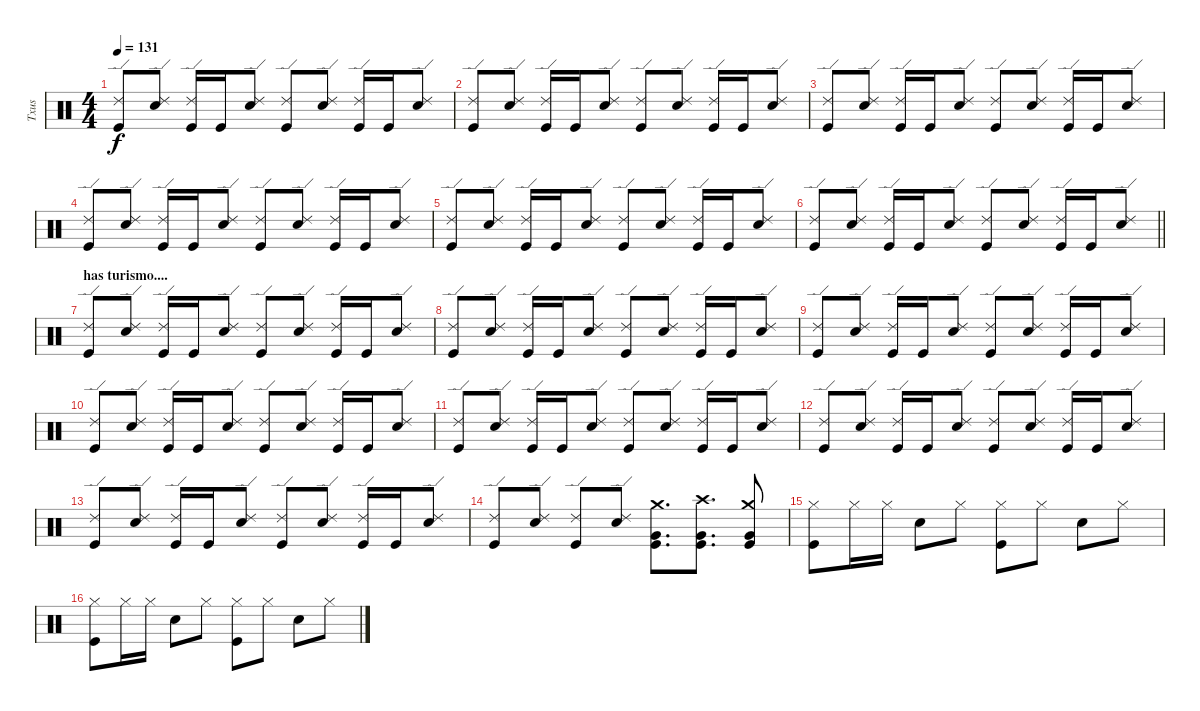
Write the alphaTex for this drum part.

\track ("Txus" "Txus") {instrument percussion}
\staff {score}
\articulation defaults
\ts (4 4)
\tempo 131
\clef neutral
\ks c
("Ride (edge) 2" "Kick (hit)").8{dy f} ("Ride (edge) 2" "Electric Snare (hit)").8 ("Ride (edge) 2" "Kick (hit)").16 "Kick (hit)".16 ("Ride (edge) 2" "Electric Snare (hit)").8 ("Ride (edge) 2" "Kick (hit)").8 ("Ride (edge) 2" "Electric Snare (hit)").8 ("Ride (edge) 2" "Kick (hit)").16 "Kick (hit)".16 ("Ride (edge) 2" "Electric Snare (hit)").8 |
("Ride (edge) 2" "Kick (hit)").8 ("Ride (edge) 2" "Electric Snare (hit)").8 ("Ride (edge) 2" "Kick (hit)").16 "Kick (hit)".16 ("Ride (edge) 2" "Electric Snare (hit)").8 ("Ride (edge) 2" "Kick (hit)").8 ("Ride (edge) 2" "Electric Snare (hit)").8 ("Ride (edge) 2" "Kick (hit)").16 "Kick (hit)".16 ("Ride (edge) 2" "Electric Snare (hit)").8 |
("Ride (edge) 2" "Kick (hit)").8 ("Ride (edge) 2" "Electric Snare (hit)").8 ("Ride (edge) 2" "Kick (hit)").16 "Kick (hit)".16 ("Ride (edge) 2" "Electric Snare (hit)").8 ("Ride (edge) 2" "Kick (hit)").8 ("Ride (edge) 2" "Electric Snare (hit)").8 ("Ride (edge) 2" "Kick (hit)").16 "Kick (hit)".16 ("Ride (edge) 2" "Electric Snare (hit)").8 |
("Ride (edge) 2" "Kick (hit)").8 ("Ride (edge) 2" "Electric Snare (hit)").8 ("Ride (edge) 2" "Kick (hit)").16 "Kick (hit)".16 ("Ride (edge) 2" "Electric Snare (hit)").8 ("Ride (edge) 2" "Kick (hit)").8 ("Ride (edge) 2" "Electric Snare (hit)").8 ("Ride (edge) 2" "Kick (hit)").16 "Kick (hit)".16 ("Ride (edge) 2" "Electric Snare (hit)").8 |
("Ride (edge) 2" "Kick (hit)").8 ("Ride (edge) 2" "Electric Snare (hit)").8 ("Ride (edge) 2" "Kick (hit)").16 "Kick (hit)".16 ("Ride (edge) 2" "Electric Snare (hit)").8 ("Ride (edge) 2" "Kick (hit)").8 ("Ride (edge) 2" "Electric Snare (hit)").8 ("Ride (edge) 2" "Kick (hit)").16 "Kick (hit)".16 ("Ride (edge) 2" "Electric Snare (hit)").8 |
\barLineRight lightlight
("Ride (edge) 2" "Kick (hit)").8 ("Ride (edge) 2" "Electric Snare (hit)").8 ("Ride (edge) 2" "Kick (hit)").16 "Kick (hit)".16 ("Ride (edge) 2" "Electric Snare (hit)").8 ("Ride (edge) 2" "Kick (hit)").8 ("Ride (edge) 2" "Electric Snare (hit)").8 ("Ride (edge) 2" "Kick (hit)").16 "Kick (hit)".16 ("Ride (edge) 2" "Electric Snare (hit)").8 |
\section ("" "has turismo....")
("Ride (edge) 2" "Kick (hit)").8 ("Ride (edge) 2" "Electric Snare (hit)").8 ("Ride (edge) 2" "Kick (hit)").16 "Kick (hit)".16 ("Ride (edge) 2" "Electric Snare (hit)").8 ("Ride (edge) 2" "Kick (hit)").8 ("Ride (edge) 2" "Electric Snare (hit)").8 ("Ride (edge) 2" "Kick (hit)").16 "Kick (hit)".16 ("Ride (edge) 2" "Electric Snare (hit)").8 |
("Ride (edge) 2" "Kick (hit)").8 ("Ride (edge) 2" "Electric Snare (hit)").8 ("Ride (edge) 2" "Kick (hit)").16 "Kick (hit)".16 ("Ride (edge) 2" "Electric Snare (hit)").8 ("Ride (edge) 2" "Kick (hit)").8 ("Ride (edge) 2" "Electric Snare (hit)").8 ("Ride (edge) 2" "Kick (hit)").16 "Kick (hit)".16 ("Ride (edge) 2" "Electric Snare (hit)").8 |
("Ride (edge) 2" "Kick (hit)").8 ("Ride (edge) 2" "Electric Snare (hit)").8 ("Ride (edge) 2" "Kick (hit)").16 "Kick (hit)".16 ("Ride (edge) 2" "Electric Snare (hit)").8 ("Ride (edge) 2" "Kick (hit)").8 ("Ride (edge) 2" "Electric Snare (hit)").8 ("Ride (edge) 2" "Kick (hit)").16 "Kick (hit)".16 ("Ride (edge) 2" "Electric Snare (hit)").8 |
("Ride (edge) 2" "Kick (hit)").8 ("Ride (edge) 2" "Electric Snare (hit)").8 ("Ride (edge) 2" "Kick (hit)").16 "Kick (hit)".16 ("Ride (edge) 2" "Electric Snare (hit)").8 ("Ride (edge) 2" "Kick (hit)").8 ("Ride (edge) 2" "Electric Snare (hit)").8 ("Ride (edge) 2" "Kick (hit)").16 "Kick (hit)".16 ("Ride (edge) 2" "Electric Snare (hit)").8 |
("Ride (edge) 2" "Kick (hit)").8 ("Ride (edge) 2" "Electric Snare (hit)").8 ("Ride (edge) 2" "Kick (hit)").16 "Kick (hit)".16 ("Ride (edge) 2" "Electric Snare (hit)").8 ("Ride (edge) 2" "Kick (hit)").8 ("Ride (edge) 2" "Electric Snare (hit)").8 ("Ride (edge) 2" "Kick (hit)").16 "Kick (hit)".16 ("Ride (edge) 2" "Electric Snare (hit)").8 |
("Ride (edge) 2" "Kick (hit)").8 ("Ride (edge) 2" "Electric Snare (hit)").8 ("Ride (edge) 2" "Kick (hit)").16 "Kick (hit)".16 ("Ride (edge) 2" "Electric Snare (hit)").8 ("Ride (edge) 2" "Kick (hit)").8 ("Ride (edge) 2" "Electric Snare (hit)").8 ("Ride (edge) 2" "Kick (hit)").16 "Kick (hit)".16 ("Ride (edge) 2" "Electric Snare (hit)").8 |
("Ride (edge) 2" "Kick (hit)").8 ("Ride (edge) 2" "Electric Snare (hit)").8 ("Ride (edge) 2" "Kick (hit)").16 "Kick (hit)".16 ("Ride (edge) 2" "Electric Snare (hit)").8 ("Ride (edge) 2" "Kick (hit)").8 ("Ride (edge) 2" "Electric Snare (hit)").8 ("Ride (edge) 2" "Kick (hit)").16 "Kick (hit)".16 ("Ride (edge) 2" "Electric Snare (hit)").8 |
("Ride (edge) 2" "Kick (hit)").8 ("Ride (edge) 2" "Electric Snare (hit)").8 ("Ride (edge) 2" "Kick (hit)").8 ("Ride (edge) 2" "Electric Snare (hit)").8 ("Crash medium (hit)" "Very Low Tom (hit)" "Kick (hit)").8{d} ("Crash high (hit)" "Very Low Tom (hit)" "Kick (hit)").8{d} ("Crash medium (hit)" "Very Low Tom (hit)" "Kick (hit)").8 |
("Hi-Hat (closed)" "Kick (hit)").8 "Hi-Hat (closed)".16 "Hi-Hat (closed)".16 "Electric Snare (hit)".8 "Hi-Hat (closed)".8 ("Hi-Hat (closed)" "Kick (hit)").8 "Hi-Hat (closed)".8 "Electric Snare (hit)".8 "Hi-Hat (closed)".8 |
("Hi-Hat (closed)" "Kick (hit)").8 "Hi-Hat (closed)".16 "Hi-Hat (closed)".16 "Electric Snare (hit)".8 "Hi-Hat (closed)".8 ("Hi-Hat (closed)" "Kick (hit)").8 "Hi-Hat (closed)".8 "Electric Snare (hit)".8 "Hi-Hat (closed)".8
